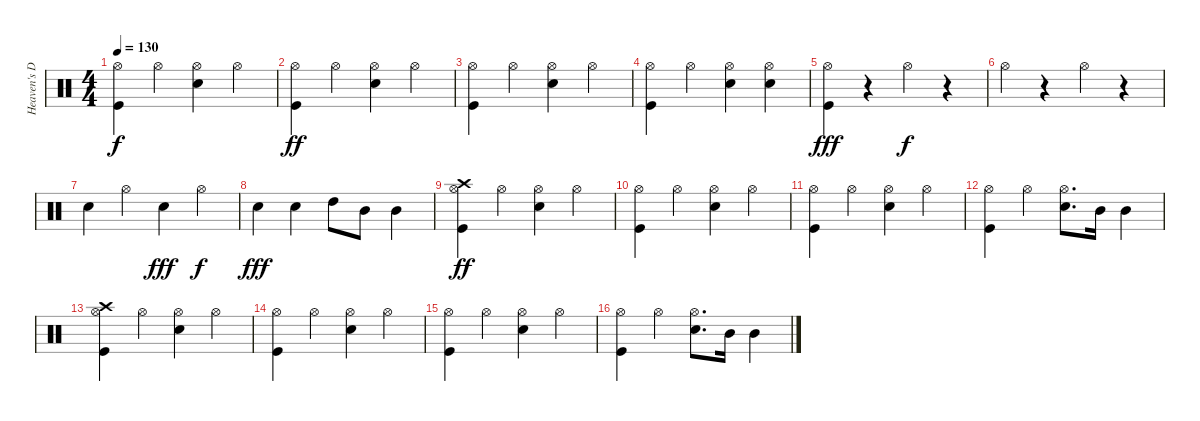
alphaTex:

\track ("Heaven's Door" "Heaven's D") {instrument percussion}
\staff {score}
\articulation defaults
\ts (4 4)
\tempo 130
\clef neutral
\ks c
("Hi-Hat (open)" "Kick (hit)").4{dy f} "Hi-Hat (open)".4 ("Electric Snare (hit)" "Hi-Hat (open)").4 "Hi-Hat (open)".4 |
("Hi-Hat (open)" "Kick (hit)").4{dy ff} "Hi-Hat (open)".4 ("Electric Snare (hit)" "Hi-Hat (open)").4 "Hi-Hat (open)".4 |
("Kick (hit)" "Hi-Hat (open)").4 "Hi-Hat (open)".4 ("Electric Snare (hit)" "Hi-Hat (open)").4 "Hi-Hat (open)".4 |
("Hi-Hat (open)" "Kick (hit)").4 "Hi-Hat (open)".4 ("Electric Snare (hit)" "Hi-Hat (open)").4 ("Electric Snare (hit)" "Hi-Hat (open)").4 |
("Hi-Hat (open)" "Kick (hit)").4{dy fff} r.4 "Hi-Hat (open)".4{dy f} r.4 |
"Hi-Hat (open)".4 r.4 "Hi-Hat (open)".4 r.4 |
"Electric Snare (hit)".4 "Hi-Hat (open)".4 "Electric Snare (hit)".4{dy fff} "Hi-Hat (open)".4{dy f} |
"Electric Snare (hit)".4{dy fff} "Electric Snare (hit)".4 "High Tom (hit)".8 "Mid Tom (hit)".8 "Mid Tom (hit)".4 |
("Crash high (hit)" "Hi-Hat (open)" "Kick (hit)").4{dy ff} "Hi-Hat (open)".4 ("Hi-Hat (open)" "Electric Snare (hit)").4 "Hi-Hat (open)".4 |
("Hi-Hat (open)" "Kick (hit)").4 "Hi-Hat (open)".4 ("Electric Snare (hit)" "Hi-Hat (open)").4 "Hi-Hat (open)".4 |
("Kick (hit)" "Hi-Hat (open)").4 "Hi-Hat (open)".4 ("Electric Snare (hit)" "Hi-Hat (open)").4 "Hi-Hat (open)".4 |
("Hi-Hat (open)" "Kick (hit)").4 "Hi-Hat (open)".4 ("Hi-Hat (open)" "Electric Snare (hit)").8{d} "Mid Tom (hit)".16 "Mid Tom (hit)".4 |
("Crash high (hit)" "Hi-Hat (open)" "Kick (hit)").4 "Hi-Hat (open)".4 ("Hi-Hat (open)" "Electric Snare (hit)").4 "Hi-Hat (open)".4 |
("Hi-Hat (open)" "Kick (hit)").4 "Hi-Hat (open)".4 ("Electric Snare (hit)" "Hi-Hat (open)").4 "Hi-Hat (open)".4 |
("Kick (hit)" "Hi-Hat (open)").4 "Hi-Hat (open)".4 ("Electric Snare (hit)" "Hi-Hat (open)").4 "Hi-Hat (open)".4 |
("Hi-Hat (open)" "Kick (hit)").4 "Hi-Hat (open)".4 ("Hi-Hat (open)" "Electric Snare (hit)").8{d} "Mid Tom (hit)".16 "Mid Tom (hit)".4
